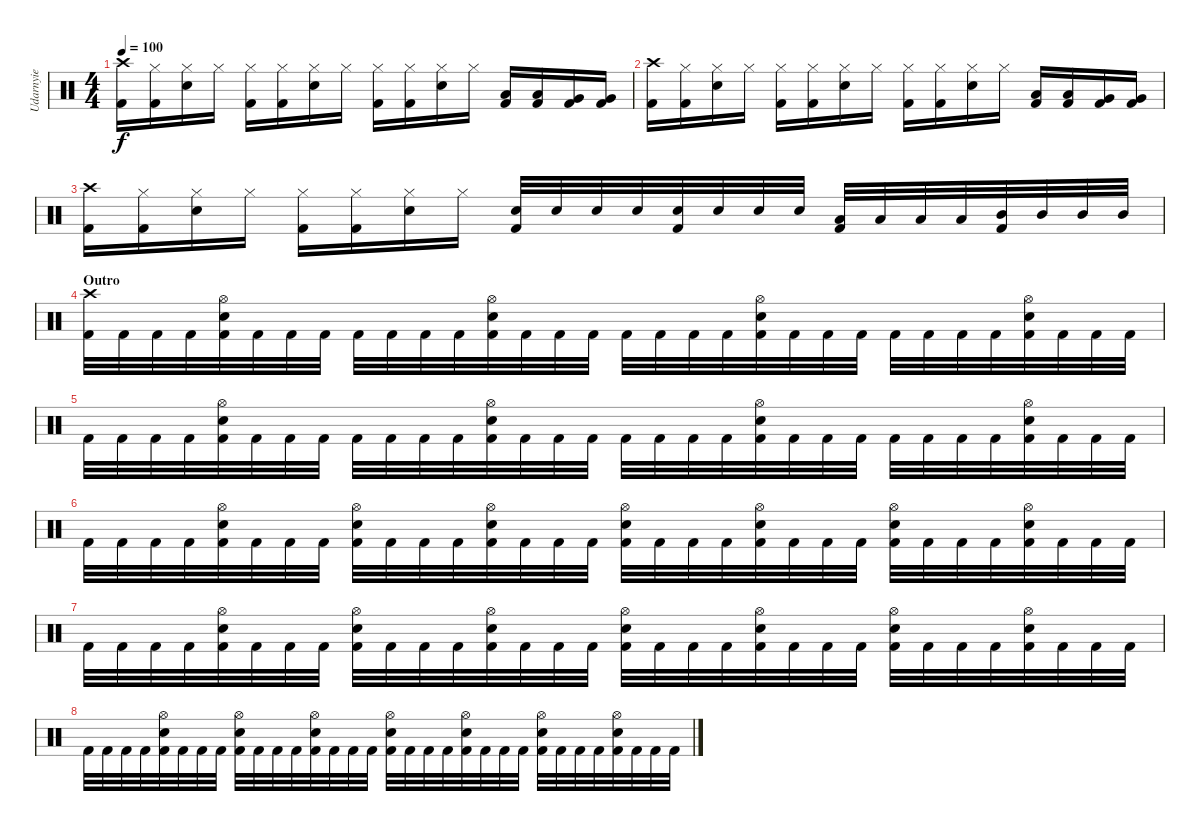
\track ("Udarnyie" "Udarnyie") {instrument percussion}
\staff {score}
\articulation defaults
\ts (4 4)
\tempo 100
\clef neutral
\ks c
("Crash high (hit)" "Kick (hit) 2").16{dy f} ("Hi-Hat (closed)" "Kick (hit) 2").16 ("Hi-Hat (closed)" "Snare (hit) 2").16 "Hi-Hat (closed)".16 ("Hi-Hat (closed)" "Kick (hit) 2").16 ("Hi-Hat (closed)" "Kick (hit) 2").16 ("Hi-Hat (closed)" "Snare (hit) 2").16 "Hi-Hat (closed)".16 ("Hi-Hat (closed)" "Kick (hit) 2").16 ("Hi-Hat (closed)" "Kick (hit) 2").16 ("Hi-Hat (closed)" "Snare (hit) 2").16 "Hi-Hat (closed)".16 ("Kick (hit) 2" "Low Tom (hit)").16 ("Kick (hit) 2" "Low Tom (hit)").16 ("Kick (hit) 2" "Very Low Tom (hit)").16 ("Kick (hit) 2" "Very Low Tom (hit)").16 |
("Crash high (hit)" "Kick (hit) 2").16 ("Hi-Hat (closed)" "Kick (hit) 2").16 ("Hi-Hat (closed)" "Snare (hit) 2").16 "Hi-Hat (closed)".16 ("Hi-Hat (closed)" "Kick (hit) 2").16 ("Hi-Hat (closed)" "Kick (hit) 2").16 ("Hi-Hat (closed)" "Snare (hit) 2").16 "Hi-Hat (closed)".16 ("Hi-Hat (closed)" "Kick (hit) 2").16 ("Hi-Hat (closed)" "Kick (hit) 2").16 ("Hi-Hat (closed)" "Snare (hit) 2").16 "Hi-Hat (closed)".16 ("Kick (hit) 2" "Low Tom (hit)").16 ("Kick (hit) 2" "Low Tom (hit)").16 ("Kick (hit) 2" "Very Low Tom (hit)").16 ("Kick (hit) 2" "Very Low Tom (hit)").16 |
("Crash high (hit)" "Kick (hit) 2").16 ("Hi-Hat (closed)" "Kick (hit) 2").16 ("Hi-Hat (closed)" "Snare (hit) 2").16 "Hi-Hat (closed)".16 ("Hi-Hat (closed)" "Kick (hit) 2").16 ("Hi-Hat (closed)" "Kick (hit) 2").16 ("Hi-Hat (closed)" "Snare (hit) 2").16 "Hi-Hat (closed)".16 ("Electric Snare (hit)" "Kick (hit) 2").32 "Electric Snare (hit)".32 "Electric Snare (hit)".32 "Electric Snare (hit)".32 ("Snare (hit) 2" "Kick (hit) 2").32 "Snare (hit) 2".32 "Snare (hit) 2".32 "Snare (hit) 2".32 ("Low Tom (hit)" "Kick (hit) 2").32 "Low Tom (hit)".32 "Low Tom (hit)".32 "Low Tom (hit)".32 ("Mid Tom (hit)" "Kick (hit) 2").32 "Mid Tom (hit)".32 "Mid Tom (hit)".32 "Mid Tom (hit)".32 |
\section ("" "Outro")
("Kick (hit) 2" "Crash high (hit)").32 "Kick (hit) 2".32 "Kick (hit) 2".32 "Kick (hit) 2".32 ("Kick (hit) 2" "Electric Snare (hit)" "Hi-Hat (open)").32 "Kick (hit) 2".32 "Kick (hit) 2".32 "Kick (hit) 2".32 "Kick (hit) 2".32 "Kick (hit) 2".32 "Kick (hit) 2".32 "Kick (hit) 2".32 ("Kick (hit) 2" "Electric Snare (hit)" "Hi-Hat (open)").32 "Kick (hit) 2".32 "Kick (hit) 2".32 "Kick (hit) 2".32 "Kick (hit) 2".32 "Kick (hit) 2".32 "Kick (hit) 2".32 "Kick (hit) 2".32 ("Kick (hit) 2" "Electric Snare (hit)" "Hi-Hat (open)").32 "Kick (hit) 2".32 "Kick (hit) 2".32 "Kick (hit) 2".32 "Kick (hit) 2".32 "Kick (hit) 2".32 "Kick (hit) 2".32 "Kick (hit) 2".32 ("Kick (hit) 2" "Electric Snare (hit)" "Hi-Hat (open)").32 "Kick (hit) 2".32 "Kick (hit) 2".32 "Kick (hit) 2".32 |
"Kick (hit) 2".32 "Kick (hit) 2".32 "Kick (hit) 2".32 "Kick (hit) 2".32 ("Kick (hit) 2" "Electric Snare (hit)" "Hi-Hat (open)").32 "Kick (hit) 2".32 "Kick (hit) 2".32 "Kick (hit) 2".32 "Kick (hit) 2".32 "Kick (hit) 2".32 "Kick (hit) 2".32 "Kick (hit) 2".32 ("Kick (hit) 2" "Electric Snare (hit)" "Hi-Hat (open)").32 "Kick (hit) 2".32 "Kick (hit) 2".32 "Kick (hit) 2".32 "Kick (hit) 2".32 "Kick (hit) 2".32 "Kick (hit) 2".32 "Kick (hit) 2".32 ("Kick (hit) 2" "Electric Snare (hit)" "Hi-Hat (open)").32 "Kick (hit) 2".32 "Kick (hit) 2".32 "Kick (hit) 2".32 "Kick (hit) 2".32 "Kick (hit) 2".32 "Kick (hit) 2".32 "Kick (hit) 2".32 ("Kick (hit) 2" "Electric Snare (hit)" "Hi-Hat (open)").32 "Kick (hit) 2".32 "Kick (hit) 2".32 "Kick (hit) 2".32 |
"Kick (hit) 2".32 "Kick (hit) 2".32 "Kick (hit) 2".32 "Kick (hit) 2".32 ("Kick (hit) 2" "Electric Snare (hit)" "Hi-Hat (open)").32 "Kick (hit) 2".32 "Kick (hit) 2".32 "Kick (hit) 2".32 ("Kick (hit) 2" "Electric Snare (hit)" "Hi-Hat (open)").32 "Kick (hit) 2".32 "Kick (hit) 2".32 "Kick (hit) 2".32 ("Kick (hit) 2" "Electric Snare (hit)" "Hi-Hat (open)").32 "Kick (hit) 2".32 "Kick (hit) 2".32 "Kick (hit) 2".32 ("Kick (hit) 2" "Hi-Hat (open)" "Electric Snare (hit)").32 "Kick (hit) 2".32 "Kick (hit) 2".32 "Kick (hit) 2".32 ("Kick (hit) 2" "Electric Snare (hit)" "Hi-Hat (open)").32 "Kick (hit) 2".32 "Kick (hit) 2".32 "Kick (hit) 2".32 ("Kick (hit) 2" "Electric Snare (hit)" "Hi-Hat (open)").32 "Kick (hit) 2".32 "Kick (hit) 2".32 "Kick (hit) 2".32 ("Kick (hit) 2" "Electric Snare (hit)" "Hi-Hat (open)").32 "Kick (hit) 2".32 "Kick (hit) 2".32 "Kick (hit) 2".32 |
"Kick (hit) 2".32 "Kick (hit) 2".32 "Kick (hit) 2".32 "Kick (hit) 2".32 ("Kick (hit) 2" "Electric Snare (hit)" "Hi-Hat (open)").32 "Kick (hit) 2".32 "Kick (hit) 2".32 "Kick (hit) 2".32 ("Kick (hit) 2" "Electric Snare (hit)" "Hi-Hat (open)").32 "Kick (hit) 2".32 "Kick (hit) 2".32 "Kick (hit) 2".32 ("Kick (hit) 2" "Electric Snare (hit)" "Hi-Hat (open)").32 "Kick (hit) 2".32 "Kick (hit) 2".32 "Kick (hit) 2".32 ("Kick (hit) 2" "Hi-Hat (open)" "Electric Snare (hit)").32 "Kick (hit) 2".32 "Kick (hit) 2".32 "Kick (hit) 2".32 ("Kick (hit) 2" "Electric Snare (hit)" "Hi-Hat (open)").32 "Kick (hit) 2".32 "Kick (hit) 2".32 "Kick (hit) 2".32 ("Kick (hit) 2" "Electric Snare (hit)" "Hi-Hat (open)").32 "Kick (hit) 2".32 "Kick (hit) 2".32 "Kick (hit) 2".32 ("Kick (hit) 2" "Electric Snare (hit)" "Hi-Hat (open)").32 "Kick (hit) 2".32 "Kick (hit) 2".32 "Kick (hit) 2".32 |
"Kick (hit) 2".32 "Kick (hit) 2".32 "Kick (hit) 2".32 "Kick (hit) 2".32 ("Kick (hit) 2" "Electric Snare (hit)" "Hi-Hat (open)").32 "Kick (hit) 2".32 "Kick (hit) 2".32 "Kick (hit) 2".32 ("Kick (hit) 2" "Electric Snare (hit)" "Hi-Hat (open)").32 "Kick (hit) 2".32 "Kick (hit) 2".32 "Kick (hit) 2".32 ("Kick (hit) 2" "Electric Snare (hit)" "Hi-Hat (open)").32 "Kick (hit) 2".32 "Kick (hit) 2".32 "Kick (hit) 2".32 ("Kick (hit) 2" "Hi-Hat (open)" "Electric Snare (hit)").32 "Kick (hit) 2".32 "Kick (hit) 2".32 "Kick (hit) 2".32 ("Kick (hit) 2" "Electric Snare (hit)" "Hi-Hat (open)").32 "Kick (hit) 2".32 "Kick (hit) 2".32 "Kick (hit) 2".32 ("Kick (hit) 2" "Electric Snare (hit)" "Hi-Hat (open)").32 "Kick (hit) 2".32 "Kick (hit) 2".32 "Kick (hit) 2".32 ("Kick (hit) 2" "Electric Snare (hit)" "Hi-Hat (open)").32 "Kick (hit) 2".32 "Kick (hit) 2".32 "Kick (hit) 2".32
